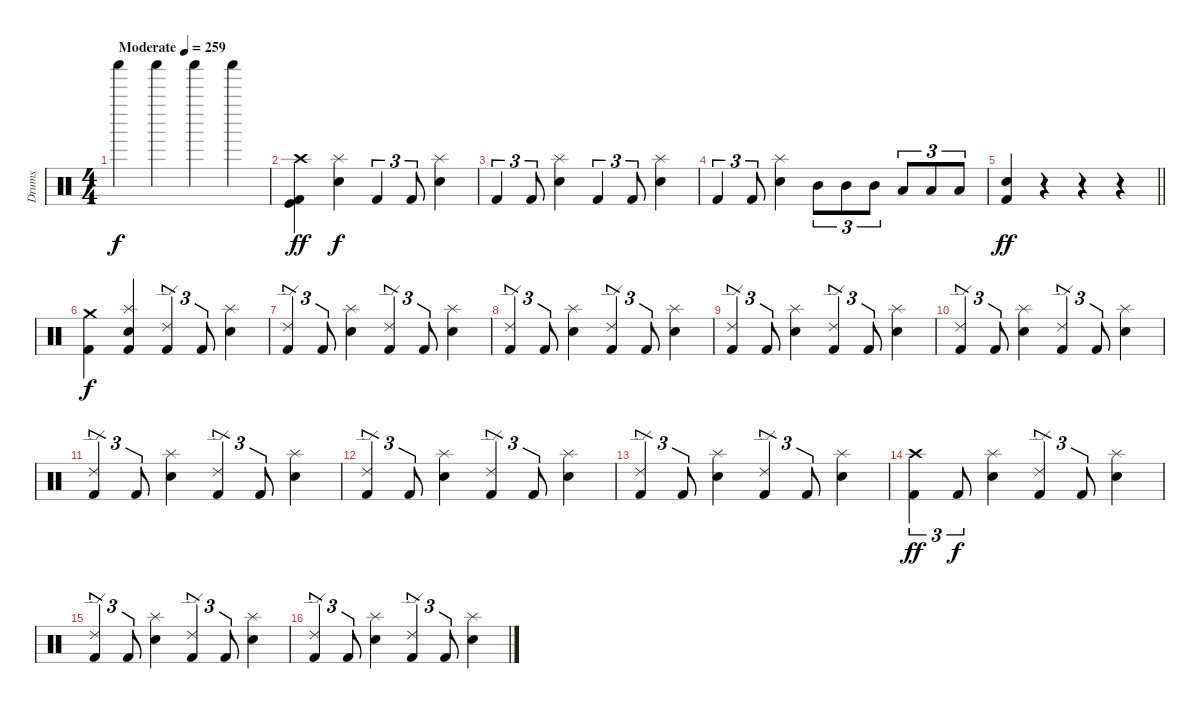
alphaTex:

\track ("Drums" "Drums") {instrument percussion}
\staff {score}
\articulation defaults
\ts (4 4)
\section ("" "")
\tempo (259 "Moderate")
\clef neutral
\ks c "Shaker (hit)".4{dy f} "Shaker (hit)".4 "Shaker (hit)".4 "Shaker (hit)".4
|
("Crash high (hit)" "Kick (hit)" "Kick (hit) 2").4{dy ff} ("Splash (hit)" "Snare (hit) 2").4{dy f} "Kick (hit) 2".4{tu (3 2)} "Kick (hit) 2".8{tu (3 2)} ("Splash (hit)" "Snare (hit) 2").4 |
"Kick (hit) 2".4{tu (3 2)} "Kick (hit) 2".8{tu (3 2)} ("Splash (hit)" "Snare (hit) 2").4 "Kick (hit) 2".4{tu (3 2)} "Kick (hit) 2".8{tu (3 2)} ("Splash (hit)" "Snare (hit) 2").4 |
"Kick (hit) 2".4{tu (3 2)} "Kick (hit) 2".8{tu (3 2)} ("Splash (hit)" "Snare (hit) 2").4 "Mid Tom (hit)".8{tu (3 2)} "Mid Tom (hit)".8{tu (3 2)} "Mid Tom (hit)".8{tu (3 2)} "Low Tom (hit)".8{tu (3 2)} "Low Tom (hit)".8{tu (3 2)} "Low Tom (hit)".8{tu (3 2)} |
\barLineRight lightlight
("Electric Snare (hit)" "Kick (hit) 2").4{dy ff} r.4 r.4 r.4 |
("Crash medium (hit)" "Kick (hit) 2").4{dy f} ("Splash (hit)" "Snare (hit) 2" "Kick (hit) 2").4 ("Ride (edge) 2" "Kick (hit) 2").4{tu (3 2)} "Kick (hit) 2".8{tu (3 2)} ("Splash (hit)" "Snare (hit) 2").4 |
("Ride (edge) 2" "Kick (hit) 2").4{tu (3 2)} "Kick (hit) 2".8{tu (3 2)} ("Splash (hit)" "Snare (hit) 2").4 ("Ride (edge) 2" "Kick (hit) 2").4{tu (3 2)} "Kick (hit) 2".8{tu (3 2)} ("Splash (hit)" "Snare (hit) 2").4 |
("Ride (edge) 2" "Kick (hit) 2").4{tu (3 2)} "Kick (hit) 2".8{tu (3 2)} ("Splash (hit)" "Snare (hit) 2").4 ("Ride (edge) 2" "Kick (hit) 2").4{tu (3 2)} "Kick (hit) 2".8{tu (3 2)} ("Splash (hit)" "Snare (hit) 2").4 |
("Ride (edge) 2" "Kick (hit) 2").4{tu (3 2)} "Kick (hit) 2".8{tu (3 2)} ("Splash (hit)" "Snare (hit) 2").4 ("Ride (edge) 2" "Kick (hit) 2").4{tu (3 2)} "Kick (hit) 2".8{tu (3 2)} ("Splash (hit)" "Snare (hit) 2").4 |
("Ride (edge) 2" "Kick (hit) 2").4{tu (3 2)} "Kick (hit) 2".8{tu (3 2)} ("Splash (hit)" "Snare (hit) 2").4 ("Ride (edge) 2" "Kick (hit) 2").4{tu (3 2)} "Kick (hit) 2".8{tu (3 2)} ("Splash (hit)" "Snare (hit) 2").4 |
("Ride (edge) 2" "Kick (hit) 2").4{tu (3 2)} "Kick (hit) 2".8{tu (3 2)} ("Splash (hit)" "Snare (hit) 2").4 ("Ride (edge) 2" "Kick (hit) 2").4{tu (3 2)} "Kick (hit) 2".8{tu (3 2)} ("Splash (hit)" "Snare (hit) 2").4 |
("Ride (edge) 2" "Kick (hit) 2").4{tu (3 2)} "Kick (hit) 2".8{tu (3 2)} ("Splash (hit)" "Snare (hit) 2").4 ("Ride (edge) 2" "Kick (hit) 2").4{tu (3 2)} "Kick (hit) 2".8{tu (3 2)} ("Splash (hit)" "Snare (hit) 2").4 |
("Ride (edge) 2" "Kick (hit) 2").4{tu (3 2)} "Kick (hit) 2".8{tu (3 2)} ("Splash (hit)" "Snare (hit) 2").4 ("Ride (edge) 2" "Kick (hit) 2").4{tu (3 2)} "Kick (hit) 2".8{tu (3 2)} ("Splash (hit)" "Snare (hit) 2").4 |
("Crash high (hit)" "Kick (hit) 2").4{tu (3 2) dy ff} "Kick (hit) 2".8{tu (3 2) dy f} ("Splash (hit)" "Snare (hit) 2").4 ("Ride (edge) 2" "Kick (hit) 2").4{tu (3 2)} "Kick (hit) 2".8{tu (3 2)} ("Splash (hit)" "Snare (hit) 2").4 |
("Ride (edge) 2" "Kick (hit) 2").4{tu (3 2)} "Kick (hit) 2".8{tu (3 2)} ("Splash (hit)" "Snare (hit) 2").4 ("Ride (edge) 2" "Kick (hit) 2").4{tu (3 2)} "Kick (hit) 2".8{tu (3 2)} ("Splash (hit)" "Snare (hit) 2").4 |
("Ride (edge) 2" "Kick (hit) 2").4{tu (3 2)} "Kick (hit) 2".8{tu (3 2)} ("Splash (hit)" "Snare (hit) 2").4 ("Ride (edge) 2" "Kick (hit) 2").4{tu (3 2)} "Kick (hit) 2".8{tu (3 2)} ("Splash (hit)" "Snare (hit) 2").4
